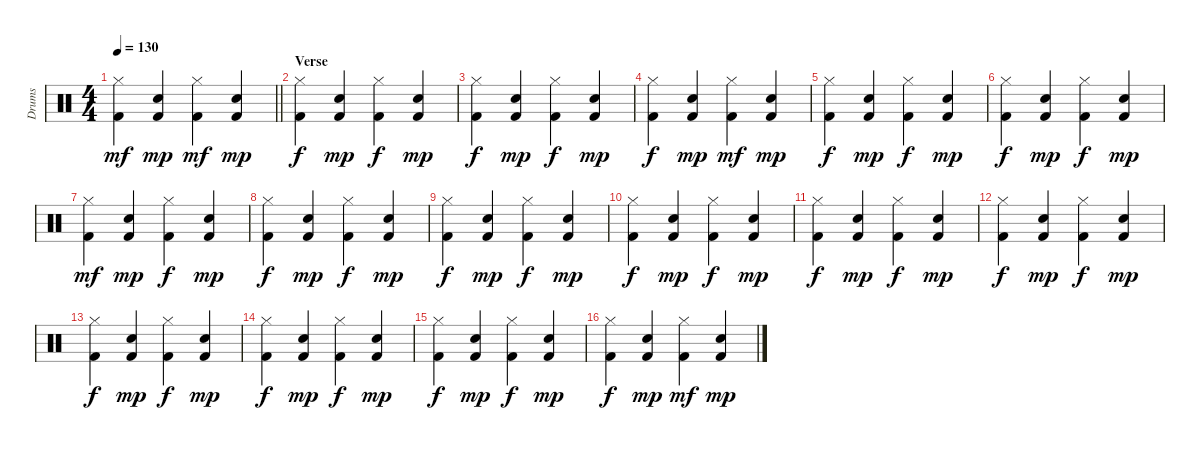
\track ("Drums" "Drums") {instrument percussion}
\staff {score}
\articulation defaults
\ts (4 4)
\tempo 130
\clef neutral
\barLineRight lightlight
\ks c
("Kick (hit) 2" "Hi-Hat (closed)").4{dy mf} ("Kick (hit) 2" "Snare (hit) 2").4{dy mp} ("Kick (hit) 2" "Hi-Hat (closed)").4{dy mf} ("Kick (hit) 2" "Snare (hit) 2").4{dy mp} |
\section ("" "Verse")
("Kick (hit) 2" "Hi-Hat (closed)").4{dy f} ("Kick (hit) 2" "Snare (hit) 2").4{dy mp} ("Kick (hit) 2" "Hi-Hat (closed)").4{dy f} ("Kick (hit) 2" "Snare (hit) 2").4{dy mp} |
("Kick (hit) 2" "Hi-Hat (closed)").4{dy f} ("Kick (hit) 2" "Snare (hit) 2").4{dy mp} ("Kick (hit) 2" "Hi-Hat (closed)").4{dy f} ("Kick (hit) 2" "Snare (hit) 2").4{dy mp} |
("Kick (hit) 2" "Hi-Hat (closed)").4{dy f} ("Kick (hit) 2" "Snare (hit) 2").4{dy mp} ("Kick (hit) 2" "Hi-Hat (closed)").4{dy mf} ("Kick (hit) 2" "Snare (hit) 2").4{dy mp} |
("Kick (hit) 2" "Hi-Hat (closed)").4{dy f} ("Kick (hit) 2" "Snare (hit) 2").4{dy mp} ("Kick (hit) 2" "Hi-Hat (closed)").4{dy f} ("Kick (hit) 2" "Snare (hit) 2").4{dy mp} |
("Kick (hit) 2" "Hi-Hat (closed)").4{dy f} ("Kick (hit) 2" "Snare (hit) 2").4{dy mp} ("Kick (hit) 2" "Hi-Hat (closed)").4{dy f} ("Kick (hit) 2" "Snare (hit) 2").4{dy mp} |
("Kick (hit) 2" "Hi-Hat (closed)").4{dy mf} ("Kick (hit) 2" "Snare (hit) 2").4{dy mp} ("Kick (hit) 2" "Hi-Hat (closed)").4{dy f} ("Kick (hit) 2" "Snare (hit) 2").4{dy mp} |
("Kick (hit) 2" "Hi-Hat (closed)").4{dy f} ("Kick (hit) 2" "Snare (hit) 2").4{dy mp} ("Kick (hit) 2" "Hi-Hat (closed)").4{dy f} ("Kick (hit) 2" "Snare (hit) 2").4{dy mp} |
("Kick (hit) 2" "Hi-Hat (closed)").4{dy f} ("Kick (hit) 2" "Snare (hit) 2").4{dy mp} ("Kick (hit) 2" "Hi-Hat (closed)").4{dy f} ("Kick (hit) 2" "Snare (hit) 2").4{dy mp} |
("Kick (hit) 2" "Hi-Hat (closed)").4{dy f} ("Kick (hit) 2" "Snare (hit) 2").4{dy mp} ("Kick (hit) 2" "Hi-Hat (closed)").4{dy f} ("Kick (hit) 2" "Snare (hit) 2").4{dy mp} |
("Kick (hit) 2" "Hi-Hat (closed)").4{dy f} ("Kick (hit) 2" "Snare (hit) 2").4{dy mp} ("Kick (hit) 2" "Hi-Hat (closed)").4{dy f} ("Kick (hit) 2" "Snare (hit) 2").4{dy mp} |
("Kick (hit) 2" "Hi-Hat (closed)").4{dy f} ("Kick (hit) 2" "Snare (hit) 2").4{dy mp} ("Kick (hit) 2" "Hi-Hat (closed)").4{dy f} ("Kick (hit) 2" "Snare (hit) 2").4{dy mp} |
("Kick (hit) 2" "Hi-Hat (closed)").4{dy f} ("Kick (hit) 2" "Snare (hit) 2").4{dy mp} ("Kick (hit) 2" "Hi-Hat (closed)").4{dy f} ("Kick (hit) 2" "Snare (hit) 2").4{dy mp} |
("Kick (hit) 2" "Hi-Hat (closed)").4{dy f} ("Kick (hit) 2" "Snare (hit) 2").4{dy mp} ("Kick (hit) 2" "Hi-Hat (closed)").4{dy f} ("Kick (hit) 2" "Snare (hit) 2").4{dy mp} |
("Kick (hit) 2" "Hi-Hat (closed)").4{dy f} ("Kick (hit) 2" "Snare (hit) 2").4{dy mp} ("Kick (hit) 2" "Hi-Hat (closed)").4{dy f} ("Kick (hit) 2" "Snare (hit) 2").4{dy mp} |
("Kick (hit) 2" "Hi-Hat (closed)").4{dy f} ("Kick (hit) 2" "Snare (hit) 2").4{dy mp} ("Kick (hit) 2" "Hi-Hat (closed)").4{dy mf} ("Kick (hit) 2" "Snare (hit) 2").4{dy mp}
